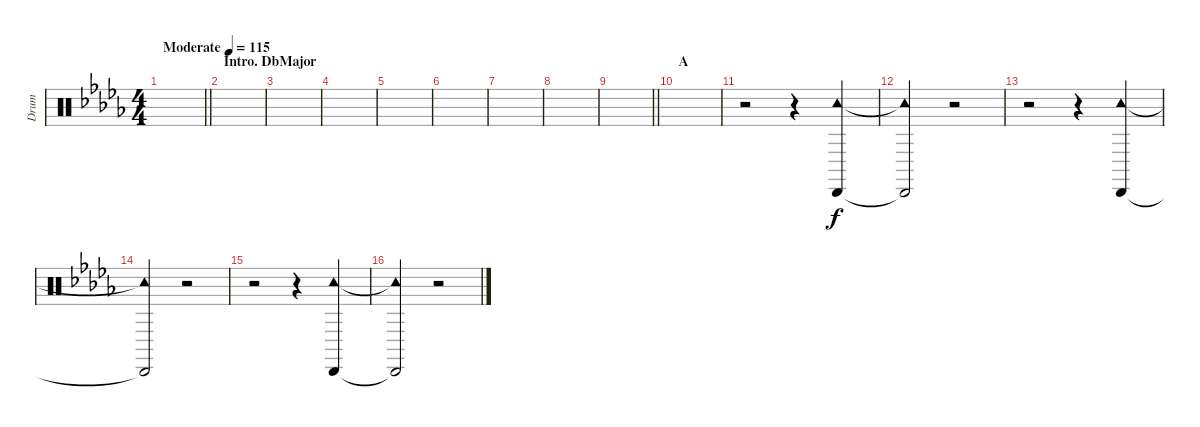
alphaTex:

\track ("Drum" "Drum") {instrument percussion}
\staff {score}
\articulation defaults
\ts (4 4)
\tempo (115 "Moderate")
\clef neutral
\barLineRight lightlight
\ks db
|
\section ("" "Intro. DbMajor")
|
|
|
|
|
|
|
\barLineRight lightlight
|
\section ("" "A")
|
r.2 r.4 ("Cabasa (hit)" "Tambourine (hit)").4 |
("Cabasa (hit)"{t} "Tambourine (hit)"{t}).2 r.2 |
r.2 r.4 ("Cabasa (hit)" "Tambourine (hit)").4 |
("Cabasa (hit)"{t} "Tambourine (hit)"{t}).2 r.2 |
r.2 r.4 ("Cabasa (hit)" "Tambourine (hit)").4 |
("Cabasa (hit)"{t} "Tambourine (hit)"{t}).2 r.2
